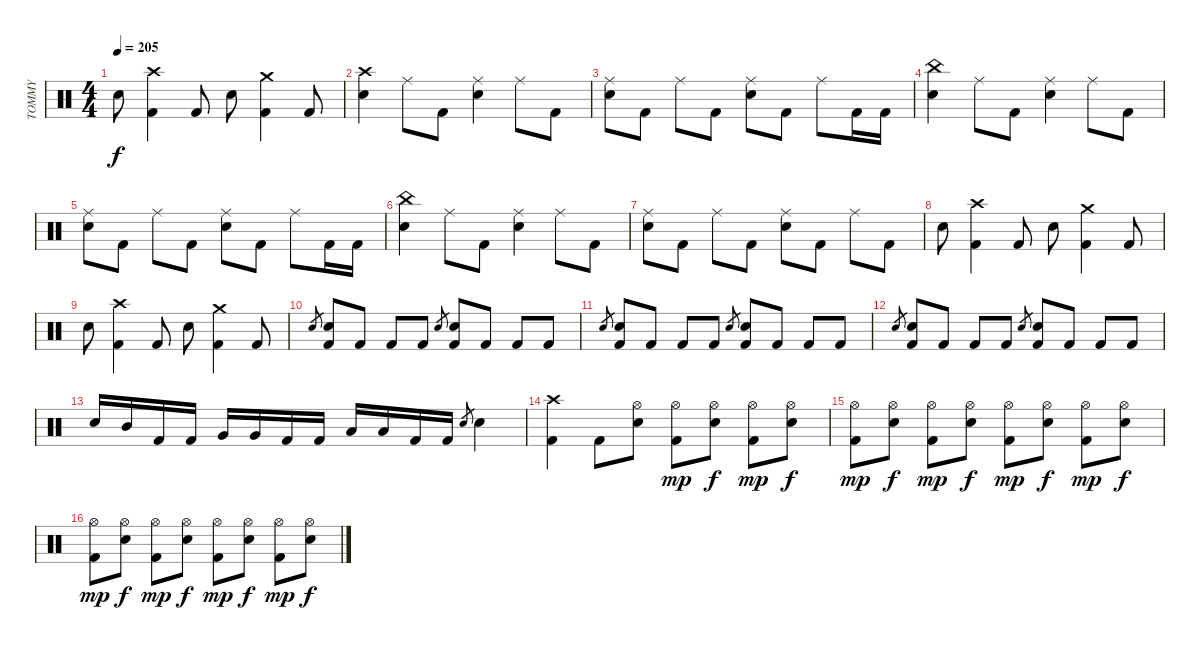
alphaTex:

\track ("TOMMY" "TOMMY") {instrument percussion}
\staff {score}
\articulation defaults
\ts (4 4)
\tempo 205
\clef neutral
\ks c "Snare (hit) 2".8{dy f}
("Kick (hit) 2" "Crash high (hit)").4 "Kick (hit) 2".8 "Snare (hit) 2".8 ("Kick (hit) 2" "Crash medium (hit)").4 "Kick (hit) 2".8 |
("Snare (hit) 2" "Crash high (hit)").4 "Ride (middle)".8 "Kick (hit) 2".8 ("Snare (hit) 2" "Ride (middle)").4 "Ride (middle)".8 "Kick (hit) 2".8 |
("Snare (hit) 2" "Ride (middle)").8 "Kick (hit) 2".8 "Ride (middle)".8 "Kick (hit) 2".8 ("Snare (hit) 2" "Ride (middle)").8 "Kick (hit) 2".8 "Ride (middle)".8 "Kick (hit) 2".16 "Kick (hit) 2".16 |
("Snare (hit) 2" "China (hit)").4 "Ride (middle)".8 "Kick (hit) 2".8 ("Snare (hit) 2" "Ride (middle)").4 "Ride (middle)".8 "Kick (hit) 2".8 |
("Snare (hit) 2" "Ride (middle)").8 "Kick (hit) 2".8 "Ride (middle)".8 "Kick (hit) 2".8 ("Snare (hit) 2" "Ride (middle)").8 "Kick (hit) 2".8 "Ride (middle)".8 "Kick (hit) 2".16 "Kick (hit) 2".16 |
("Snare (hit) 2" "China (hit)").4 "Ride (middle)".8 "Kick (hit) 2".8 ("Snare (hit) 2" "Ride (middle)").4 "Ride (middle)".8 "Kick (hit) 2".8 |
("Snare (hit) 2" "Ride (middle)").8 "Kick (hit) 2".8 "Ride (middle)".8 "Kick (hit) 2".8 ("Snare (hit) 2" "Ride (middle)").8 "Kick (hit) 2".8 "Ride (middle)".8 "Kick (hit) 2".8 |
"Snare (hit) 2".8 ("Kick (hit) 2" "Crash high (hit)").4 "Kick (hit) 2".8 "Snare (hit) 2".8 ("Kick (hit) 2" "Crash medium (hit)").4 "Kick (hit) 2".8 |
"Snare (hit) 2".8 ("Kick (hit) 2" "Crash high (hit)").4 "Kick (hit) 2".8 "Snare (hit) 2".8 ("Kick (hit) 2" "Crash medium (hit)").4 "Kick (hit) 2".8 |
"Snare (hit) 2".8{gr} ("Snare (hit) 2" "Kick (hit) 2").8 "Kick (hit) 2".8 "Kick (hit) 2".8 "Kick (hit) 2".8 "Snare (hit) 2".8{gr} ("Snare (hit) 2" "Kick (hit) 2").8 "Kick (hit) 2".8 "Kick (hit) 2".8 "Kick (hit) 2".8 |
"Snare (hit) 2".8{gr} ("Snare (hit) 2" "Kick (hit) 2").8 "Kick (hit) 2".8 "Kick (hit) 2".8 "Kick (hit) 2".8 "Snare (hit) 2".8{gr} ("Snare (hit) 2" "Kick (hit) 2").8 "Kick (hit) 2".8 "Kick (hit) 2".8 "Kick (hit) 2".8 |
"Snare (hit) 2".8{gr} ("Snare (hit) 2" "Kick (hit) 2").8 "Kick (hit) 2".8 "Kick (hit) 2".8 "Kick (hit) 2".8 "Snare (hit) 2".8{gr} ("Snare (hit) 2" "Kick (hit) 2").8 "Kick (hit) 2".8 "Kick (hit) 2".8 "Kick (hit) 2".8 |
"Snare (hit) 2".16 "Mid Tom (hit)".16 "Kick (hit) 2".16 "Kick (hit) 2".16 "Very Low Tom (hit)".16 "Very Low Tom (hit)".16 "Kick (hit) 2".16 "Kick (hit) 2".16 "Low Floor Tom (hit)".16 "Low Floor Tom (hit)".16 "Kick (hit) 2".16 "Kick (hit) 2".16 "Snare (hit) 2".8{gr} "Snare (hit) 2".4 |
("Kick (hit) 2" "Crash high (hit)").4 "Kick (hit) 2".8 ("Snare (hit) 2" "Hi-Hat (open)").8 ("Kick (hit) 2" "Hi-Hat (open)").8{dy mp} ("Snare (hit) 2" "Hi-Hat (open)").8{dy f} ("Kick (hit) 2" "Hi-Hat (open)").8{dy mp} ("Snare (hit) 2" "Hi-Hat (open)").8{dy f} |
("Kick (hit) 2" "Hi-Hat (open)").8{dy mp} ("Snare (hit) 2" "Hi-Hat (open)").8{dy f} ("Kick (hit) 2" "Hi-Hat (open)").8{dy mp} ("Snare (hit) 2" "Hi-Hat (open)").8{dy f} ("Kick (hit) 2" "Hi-Hat (open)").8{dy mp} ("Snare (hit) 2" "Hi-Hat (open)").8{dy f} ("Kick (hit) 2" "Hi-Hat (open)").8{dy mp} ("Snare (hit) 2" "Hi-Hat (open)").8{dy f} |
("Kick (hit) 2" "Hi-Hat (open)").8{dy mp} ("Snare (hit) 2" "Hi-Hat (open)").8{dy f} ("Kick (hit) 2" "Hi-Hat (open)").8{dy mp} ("Snare (hit) 2" "Hi-Hat (open)").8{dy f} ("Kick (hit) 2" "Hi-Hat (open)").8{dy mp} ("Snare (hit) 2" "Hi-Hat (open)").8{dy f} ("Kick (hit) 2" "Hi-Hat (open)").8{dy mp} ("Snare (hit) 2" "Hi-Hat (open)").8{dy f}
